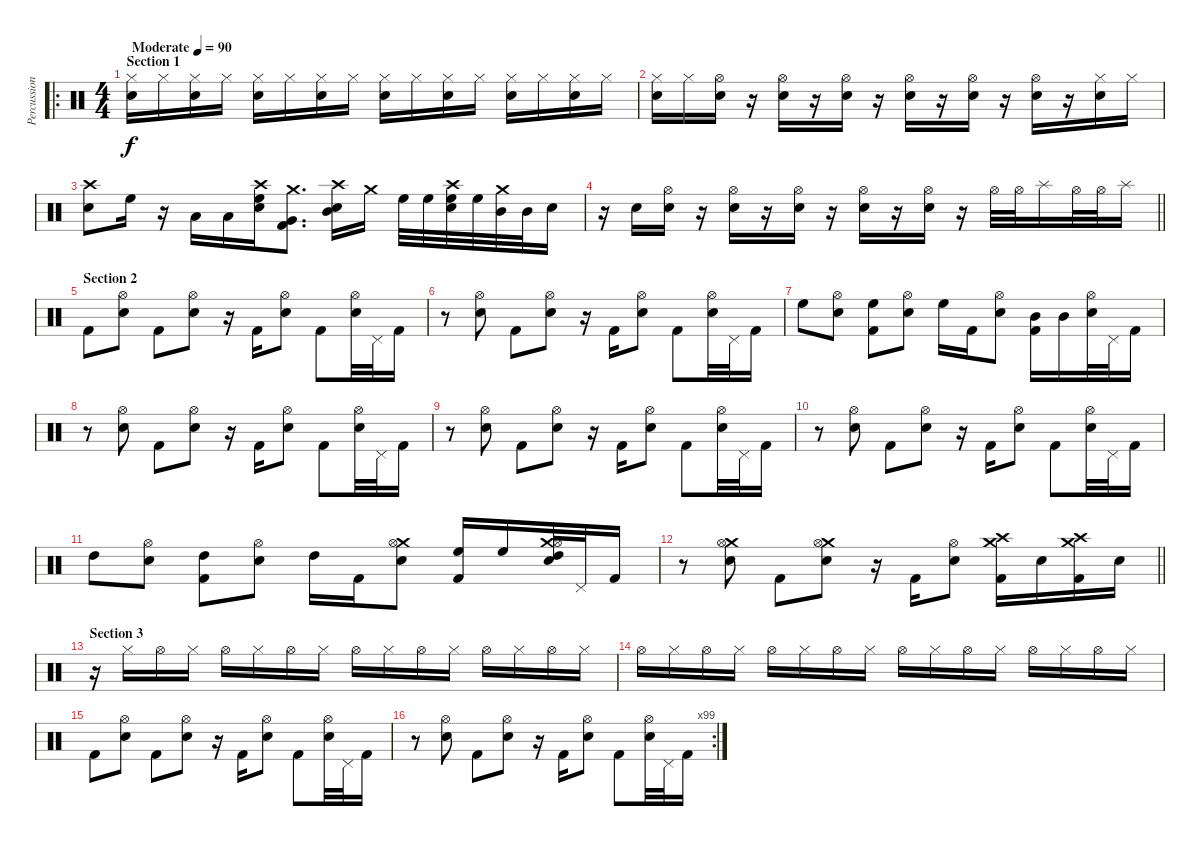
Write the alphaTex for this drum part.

\track ("Percussion" "Percussion") {instrument percussion}
\staff {score}
\articulation defaults
\ro
\ts (4 4)
\section ("" "Section 1")
\tempo (90 "Moderate")
\clef neutral
\ks c
("Hi-Hat (closed)" "Snare (hit) 2").16{dy f} "Hi-Hat (closed)".16 ("Hi-Hat (closed)" "Snare (hit) 2").16 "Hi-Hat (closed)".16 ("Hi-Hat (closed)" "Snare (hit) 2").16 "Hi-Hat (closed)".16 ("Hi-Hat (closed)" "Snare (hit) 2").16 "Hi-Hat (closed)".16 ("Hi-Hat (closed)" "Snare (hit) 2").16 "Hi-Hat (closed)".16 ("Hi-Hat (closed)" "Snare (hit) 2").16 "Hi-Hat (closed)".16 ("Hi-Hat (closed)" "Snare (hit) 2").16 "Hi-Hat (closed)".16 ("Hi-Hat (closed)" "Snare (hit) 2").16 "Hi-Hat (closed)".16 |
("Hi-Hat (closed)" "Snare (hit) 2").16 "Hi-Hat (closed)".16 ("Hi-Hat (open)" "Snare (hit) 2").16 r.16 ("Hi-Hat (open)" "Snare (hit) 2").16 r.16 ("Hi-Hat (open)" "Snare (hit) 2").16 r.16 ("Hi-Hat (open)" "Snare (hit) 2").16 r.16 ("Hi-Hat (open)" "Snare (hit) 2").16 r.16 ("Hi-Hat (open)" "Snare (hit) 2").16 r.16 ("Hi-Hat (closed)" "Snare (hit) 2").16 "Hi-Hat (closed)".16 |
("Crash high (hit)" "Snare (hit) 2").8 "High Floor Tom (hit)".16 r.16 "Low Tom (hit)".16 "Low Tom (hit)".16 ("High Floor Tom (hit)" "Crash high (hit)" "Snare (hit) 2").16 ("Very Low Tom (hit)" "Crash medium (hit)" "Kick (hit) 2").8{d} ("Mid Tom (hit)" "Crash high (hit)" "Snare (hit) 2").16 "Crash medium (hit)".16 "High Floor Tom (hit)".32 "High Floor Tom (hit)".32 ("High Floor Tom (hit)" "Crash high (hit)" "Snare (hit) 2").32 "High Floor Tom (hit)".32 ("Mid Tom (hit)" "Crash medium (hit)").32 "Mid Tom (hit)".32 "Snare (hit) 2".16 |
\barLineRight lightlight
r.16 "Snare (hit) 2".16 ("Hi-Hat (open)" "Snare (hit) 2").16 r.16 ("Hi-Hat (open)" "Snare (hit) 2").16 r.16 ("Hi-Hat (open)" "Snare (hit) 2").16 r.16 ("Hi-Hat (open)" "Snare (hit) 2").16 r.16 ("Hi-Hat (open)" "Snare (hit) 2").16 r.16 "Hi-Hat (open)".32 "Hi-Hat (open)".32 "Splash (hit)".16 "Hi-Hat (open)".32 "Hi-Hat (open)".32 "Splash (hit)".16 |
\section ("" "Section 2")
"Kick (hit) 2".8 ("Hi-Hat (open)" "Snare (hit) 2").8 "Kick (hit) 2".8 ("Hi-Hat (open)" "Snare (hit) 2").8 r.16 "Kick (hit) 2".16 ("Hi-Hat (open)" "Snare (hit) 2").8 "Kick (hit) 2".8 ("Hi-Hat (open)" "Snare (hit) 2").32 "Pedal Hi-Hat (hit)".32 "Kick (hit) 2".16 |
r.8 ("Hi-Hat (open)" "Snare (hit) 2").8 "Kick (hit) 2".8 ("Hi-Hat (open)" "Snare (hit) 2").8 r.16 "Kick (hit) 2".16 ("Hi-Hat (open)" "Snare (hit) 2").8 "Kick (hit) 2".8 ("Hi-Hat (open)" "Snare (hit) 2").32 "Pedal Hi-Hat (hit)".32 "Kick (hit) 2".16 |
"High Floor Tom (hit)".8 ("Hi-Hat (open)" "Snare (hit) 2").8 ("High Floor Tom (hit)" "Kick (hit) 2").8 ("Hi-Hat (open)" "Snare (hit) 2").8 "High Floor Tom (hit)".16 "Kick (hit) 2".16 ("Hi-Hat (open)" "Snare (hit) 2").8 ("Mid Tom (hit)" "Kick (hit) 2").16 "Mid Tom (hit)".16 ("Hi-Hat (open)" "Snare (hit) 2").32 "Pedal Hi-Hat (hit)".32 "Kick (hit) 2".16 |
r.8 ("Hi-Hat (open)" "Snare (hit) 2").8 "Kick (hit) 2".8 ("Hi-Hat (open)" "Snare (hit) 2").8 r.16 "Kick (hit) 2".16 ("Hi-Hat (open)" "Snare (hit) 2").8 "Kick (hit) 2".8 ("Hi-Hat (open)" "Snare (hit) 2").32 "Pedal Hi-Hat (hit)".32 "Kick (hit) 2".16 |
r.8 ("Hi-Hat (open)" "Snare (hit) 2").8 "Kick (hit) 2".8 ("Hi-Hat (open)" "Snare (hit) 2").8 r.16 "Kick (hit) 2".16 ("Hi-Hat (open)" "Snare (hit) 2").8 "Kick (hit) 2".8 ("Hi-Hat (open)" "Snare (hit) 2").32 "Pedal Hi-Hat (hit)".32 "Kick (hit) 2".16 |
r.8 ("Hi-Hat (open)" "Snare (hit) 2").8 "Kick (hit) 2".8 ("Hi-Hat (open)" "Snare (hit) 2").8 r.16 "Kick (hit) 2".16 ("Hi-Hat (open)" "Snare (hit) 2").8 "Kick (hit) 2".8 ("Hi-Hat (open)" "Snare (hit) 2").32 "Pedal Hi-Hat (hit)".32 "Kick (hit) 2".16 |
"High Tom (hit)".8 ("Hi-Hat (open)" "Snare (hit) 2").8 ("High Tom (hit)" "Kick (hit) 2").8 ("Hi-Hat (open)" "Snare (hit) 2").8 "High Tom (hit)".16 "Kick (hit) 2".16 ("Crash medium (hit)" "Hi-Hat (open)" "Snare (hit) 2").8 ("High Floor Tom (hit)" "Kick (hit) 2").16 "High Floor Tom (hit)".16 ("High Tom (hit)" "Crash medium (hit)" "Hi-Hat (open)" "Snare (hit) 2").32 "Pedal Hi-Hat (hit)".32 "Kick (hit) 2".16 |
\barLineRight lightlight
r.8 ("Crash medium (hit)" "Hi-Hat (open)" "Snare (hit) 2").8 "Kick (hit) 2".8 ("Crash medium (hit)" "Hi-Hat (open)" "Snare (hit) 2").8 r.16 "Kick (hit) 2".16 ("Hi-Hat (open)" "Snare (hit) 2").8 ("Crash high (hit)" "Crash medium (hit)" "Kick (hit) 2").16 "Snare (hit) 2".16 ("Crash high (hit)" "Crash medium (hit)" "Kick (hit) 2").16 "Snare (hit) 2".16 |
\section ("" "Section 3")
r.16 "Hi-Hat (closed)".16 "Hi-Hat (open)".16 "Hi-Hat (closed)".16 "Hi-Hat (open)".16 "Hi-Hat (closed)".16 "Hi-Hat (open)".16 "Hi-Hat (closed)".16 "Hi-Hat (open)".16 "Hi-Hat (closed)".16 "Hi-Hat (open)".16 "Hi-Hat (closed)".16 "Hi-Hat (open)".16 "Hi-Hat (closed)".16 "Hi-Hat (open)".16 "Hi-Hat (closed)".16 |
"Hi-Hat (open)".16 "Hi-Hat (closed)".16 "Hi-Hat (open)".16 "Hi-Hat (closed)".16 "Hi-Hat (open)".16 "Hi-Hat (closed)".16 "Hi-Hat (open)".16 "Hi-Hat (closed)".16 "Hi-Hat (open)".16 "Hi-Hat (closed)".16 "Hi-Hat (open)".16 "Hi-Hat (closed)".16 "Hi-Hat (open)".16 "Hi-Hat (closed)".16 "Hi-Hat (open)".16 "Hi-Hat (closed)".16 |
"Kick (hit) 2".8 ("Hi-Hat (open)" "Snare (hit) 2").8 "Kick (hit) 2".8 ("Hi-Hat (open)" "Snare (hit) 2").8 r.16 "Kick (hit) 2".16 ("Hi-Hat (open)" "Snare (hit) 2").8 "Kick (hit) 2".8 ("Hi-Hat (open)" "Snare (hit) 2").32 "Pedal Hi-Hat (hit)".32 "Kick (hit) 2".16 |
\rc 99
r.8 ("Hi-Hat (open)" "Snare (hit) 2").8 "Kick (hit) 2".8 ("Hi-Hat (open)" "Snare (hit) 2").8 r.16 "Kick (hit) 2".16 ("Hi-Hat (open)" "Snare (hit) 2").8 "Kick (hit) 2".8 ("Hi-Hat (open)" "Snare (hit) 2").32 "Pedal Hi-Hat (hit)".32 "Kick (hit) 2".16
